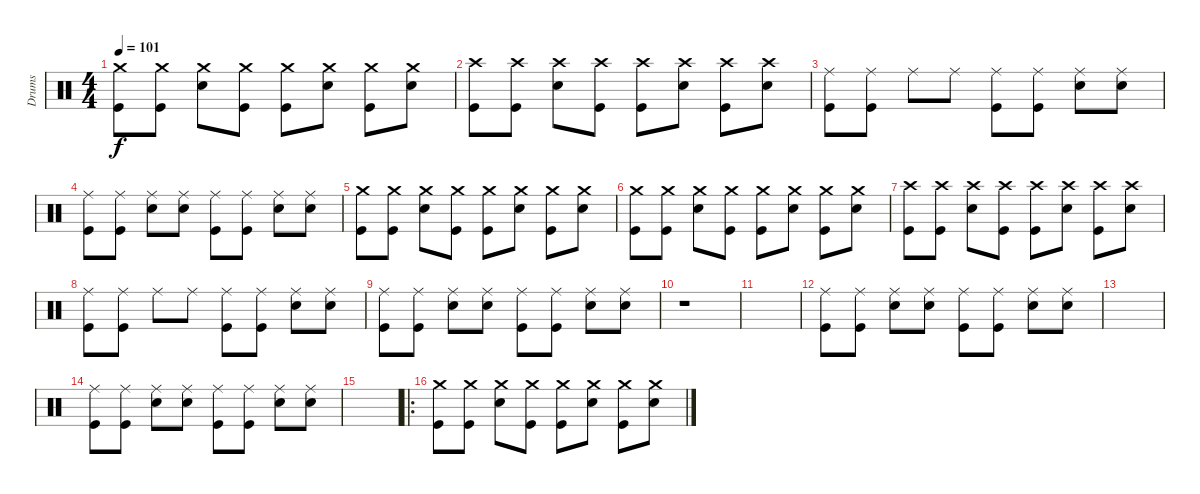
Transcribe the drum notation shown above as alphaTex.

\track ("Drums" "Drums") {instrument percussion}
\staff {score}
\articulation defaults
\ts (4 4)
\tempo 101
\clef neutral
\ks c
("Crash medium (hit)" "Kick (hit)").8{dy f} ("Crash medium (hit)" "Kick (hit)").8 ("Crash medium (hit)" "Electric Snare (hit)").8 ("Crash medium (hit)" "Kick (hit)").8 ("Crash medium (hit)" "Kick (hit)").8 ("Crash medium (hit)" "Electric Snare (hit)").8 ("Crash medium (hit)" "Kick (hit)").8 ("Crash medium (hit)" "Electric Snare (hit)").8 |
("Crash high (hit)" "Kick (hit)").8 ("Crash high (hit)" "Kick (hit)").8 ("Crash high (hit)" "Electric Snare (hit)").8 ("Crash high (hit)" "Kick (hit)").8 ("Crash high (hit)" "Kick (hit)").8 ("Crash high (hit)" "Electric Snare (hit)").8 ("Crash high (hit)" "Kick (hit)").8 ("Crash high (hit)" "Electric Snare (hit)").8 |
("Ride (middle)" "Kick (hit)").8 ("Ride (middle)" "Kick (hit)").8 "Ride (middle)".8 "Ride (middle)".8 ("Ride (middle)" "Kick (hit)").8 ("Ride (middle)" "Kick (hit)").8 ("Ride (middle)" "Electric Snare (hit)").8 ("Ride (middle)" "Electric Snare (hit)").8 |
("Ride (middle)" "Kick (hit)").8 ("Ride (middle)" "Kick (hit)").8 ("Ride (middle)" "Electric Snare (hit)").8 ("Ride (middle)" "Electric Snare (hit)").8 ("Ride (middle)" "Kick (hit)").8 ("Ride (middle)" "Kick (hit)").8 ("Ride (middle)" "Electric Snare (hit)").8 ("Ride (middle)" "Electric Snare (hit)").8 |
("Crash medium (hit)" "Kick (hit)").8 ("Crash medium (hit)" "Kick (hit)").8 ("Crash medium (hit)" "Electric Snare (hit)").8 ("Crash medium (hit)" "Kick (hit)").8 ("Crash medium (hit)" "Kick (hit)").8 ("Crash medium (hit)" "Electric Snare (hit)").8 ("Crash medium (hit)" "Kick (hit)").8 ("Crash medium (hit)" "Electric Snare (hit)").8 |
("Crash medium (hit)" "Kick (hit)").8 ("Crash medium (hit)" "Kick (hit)").8 ("Crash medium (hit)" "Electric Snare (hit)").8 ("Crash medium (hit)" "Kick (hit)").8 ("Crash medium (hit)" "Kick (hit)").8 ("Crash medium (hit)" "Electric Snare (hit)").8 ("Crash medium (hit)" "Kick (hit)").8 ("Crash medium (hit)" "Electric Snare (hit)").8 |
("Crash high (hit)" "Kick (hit)").8 ("Crash high (hit)" "Kick (hit)").8 ("Crash high (hit)" "Electric Snare (hit)").8 ("Crash high (hit)" "Kick (hit)").8 ("Crash high (hit)" "Kick (hit)").8 ("Crash high (hit)" "Electric Snare (hit)").8 ("Crash high (hit)" "Kick (hit)").8 ("Crash high (hit)" "Electric Snare (hit)").8 |
("Ride (middle)" "Kick (hit)").8 ("Ride (middle)" "Kick (hit)").8 "Ride (middle)".8 "Ride (middle)".8 ("Ride (middle)" "Kick (hit)").8 ("Ride (middle)" "Kick (hit)").8 ("Ride (middle)" "Electric Snare (hit)").8 ("Ride (middle)" "Electric Snare (hit)").8 |
("Ride (middle)" "Kick (hit)").8 ("Ride (middle)" "Kick (hit)").8 ("Ride (middle)" "Electric Snare (hit)").8 ("Ride (middle)" "Electric Snare (hit)").8 ("Ride (middle)" "Kick (hit)").8 ("Ride (middle)" "Kick (hit)").8 ("Ride (middle)" "Electric Snare (hit)").8 ("Ride (middle)" "Electric Snare (hit)").8 |
r.1 |
|
("Ride (middle)" "Kick (hit)").8 ("Ride (middle)" "Kick (hit)").8 ("Ride (middle)" "Electric Snare (hit)").8 ("Ride (middle)" "Electric Snare (hit)").8 ("Ride (middle)" "Kick (hit)").8 ("Ride (middle)" "Kick (hit)").8 ("Ride (middle)" "Electric Snare (hit)").8 ("Ride (middle)" "Electric Snare (hit)").8 |
|
("Ride (middle)" "Kick (hit)").8 ("Ride (middle)" "Kick (hit)").8 ("Ride (middle)" "Electric Snare (hit)").8 ("Ride (middle)" "Electric Snare (hit)").8 ("Ride (middle)" "Kick (hit)").8 ("Ride (middle)" "Kick (hit)").8 ("Ride (middle)" "Electric Snare (hit)").8 ("Ride (middle)" "Electric Snare (hit)").8 |
|
\ro
("Crash medium (hit)" "Kick (hit)").8 ("Crash medium (hit)" "Kick (hit)").8 ("Crash medium (hit)" "Electric Snare (hit)").8 ("Crash medium (hit)" "Kick (hit)").8 ("Crash medium (hit)" "Kick (hit)").8 ("Crash medium (hit)" "Electric Snare (hit)").8 ("Crash medium (hit)" "Kick (hit)").8 ("Crash medium (hit)" "Electric Snare (hit)").8
